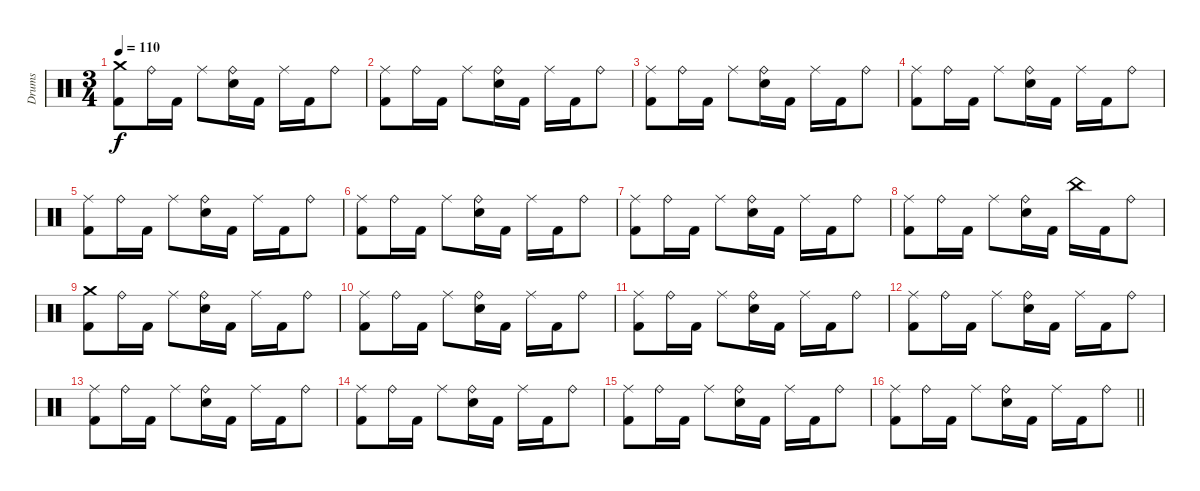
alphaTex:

\track ("Drums" "Drums") {instrument percussion}
\staff {score}
\articulation defaults
\ts (3 4)
\tempo 110
\clef neutral
\ks c
("Kick (hit) 2" "Crash medium (hit)").8{dy f} "Ride (bell)".16 "Kick (hit) 2".16 "Ride (middle)".8 ("Ride (bell)" "Electric Snare (hit)").16 "Kick (hit) 2".16 "Ride (middle)".16 "Kick (hit) 2".16 "Ride (bell)".8 |
("Kick (hit) 2" "Ride (middle)").8 "Ride (bell)".16 "Kick (hit) 2".16 "Ride (middle)".8 ("Ride (bell)" "Electric Snare (hit)").16 "Kick (hit) 2".16 "Ride (middle)".16 "Kick (hit) 2".16 "Ride (bell)".8 |
("Kick (hit) 2" "Ride (middle)").8 "Ride (bell)".16 "Kick (hit) 2".16 "Ride (middle)".8 ("Ride (bell)" "Electric Snare (hit)").16 "Kick (hit) 2".16 "Ride (middle)".16 "Kick (hit) 2".16 "Ride (bell)".8 |
("Kick (hit) 2" "Ride (middle)").8 "Ride (bell)".16 "Kick (hit) 2".16 "Ride (middle)".8 ("Ride (bell)" "Electric Snare (hit)").16 "Kick (hit) 2".16 "Ride (middle)".16 "Kick (hit) 2".16 "Ride (bell)".8 |
("Kick (hit) 2" "Ride (middle)").8 "Ride (bell)".16 "Kick (hit) 2".16 "Ride (middle)".8 ("Ride (bell)" "Electric Snare (hit)").16 "Kick (hit) 2".16 "Ride (middle)".16 "Kick (hit) 2".16 "Ride (bell)".8 |
("Kick (hit) 2" "Ride (middle)").8 "Ride (bell)".16 "Kick (hit) 2".16 "Ride (middle)".8 ("Ride (bell)" "Electric Snare (hit)").16 "Kick (hit) 2".16 "Ride (middle)".16 "Kick (hit) 2".16 "Ride (bell)".8 |
("Kick (hit) 2" "Ride (middle)").8 "Ride (bell)".16 "Kick (hit) 2".16 "Ride (middle)".8 ("Ride (bell)" "Electric Snare (hit)").16 "Kick (hit) 2".16 "Ride (middle)".16 "Kick (hit) 2".16 "Ride (bell)".8 |
("Kick (hit) 2" "Ride (middle)").8 "Ride (bell)".16 "Kick (hit) 2".16 "Ride (middle)".8 ("Ride (bell)" "Electric Snare (hit)").16 "Kick (hit) 2".16 "China (hit)".16 "Kick (hit) 2".16 "Ride (bell)".8 |
("Kick (hit) 2" "Crash medium (hit)").8 "Ride (bell)".16 "Kick (hit) 2".16 "Ride (middle)".8 ("Ride (bell)" "Electric Snare (hit)").16 "Kick (hit) 2".16 "Ride (middle)".16 "Kick (hit) 2".16 "Ride (bell)".8 |
("Kick (hit) 2" "Ride (middle)").8 "Ride (bell)".16 "Kick (hit) 2".16 "Ride (middle)".8 ("Ride (bell)" "Electric Snare (hit)").16 "Kick (hit) 2".16 "Ride (middle)".16 "Kick (hit) 2".16 "Ride (bell)".8 |
("Kick (hit) 2" "Ride (middle)").8 "Ride (bell)".16 "Kick (hit) 2".16 "Ride (middle)".8 ("Ride (bell)" "Electric Snare (hit)").16 "Kick (hit) 2".16 "Ride (middle)".16 "Kick (hit) 2".16 "Ride (bell)".8 |
("Kick (hit) 2" "Ride (middle)").8 "Ride (bell)".16 "Kick (hit) 2".16 "Ride (middle)".8 ("Ride (bell)" "Electric Snare (hit)").16 "Kick (hit) 2".16 "Ride (middle)".16 "Kick (hit) 2".16 "Ride (bell)".8 |
("Kick (hit) 2" "Ride (middle)").8 "Ride (bell)".16 "Kick (hit) 2".16 "Ride (middle)".8 ("Ride (bell)" "Electric Snare (hit)").16 "Kick (hit) 2".16 "Ride (middle)".16 "Kick (hit) 2".16 "Ride (bell)".8 |
("Kick (hit) 2" "Ride (middle)").8 "Ride (bell)".16 "Kick (hit) 2".16 "Ride (middle)".8 ("Ride (bell)" "Electric Snare (hit)").16 "Kick (hit) 2".16 "Ride (middle)".16 "Kick (hit) 2".16 "Ride (bell)".8 |
("Kick (hit) 2" "Ride (middle)").8 "Ride (bell)".16 "Kick (hit) 2".16 "Ride (middle)".8 ("Ride (bell)" "Electric Snare (hit)").16 "Kick (hit) 2".16 "Ride (middle)".16 "Kick (hit) 2".16 "Ride (bell)".8 |
\barLineRight lightlight
("Kick (hit) 2" "Ride (middle)").8 "Ride (bell)".16 "Kick (hit) 2".16 "Ride (middle)".8 ("Ride (bell)" "Electric Snare (hit)").16 "Kick (hit) 2".16 "Ride (middle)".16 "Kick (hit) 2".16 "Ride (bell)".8
